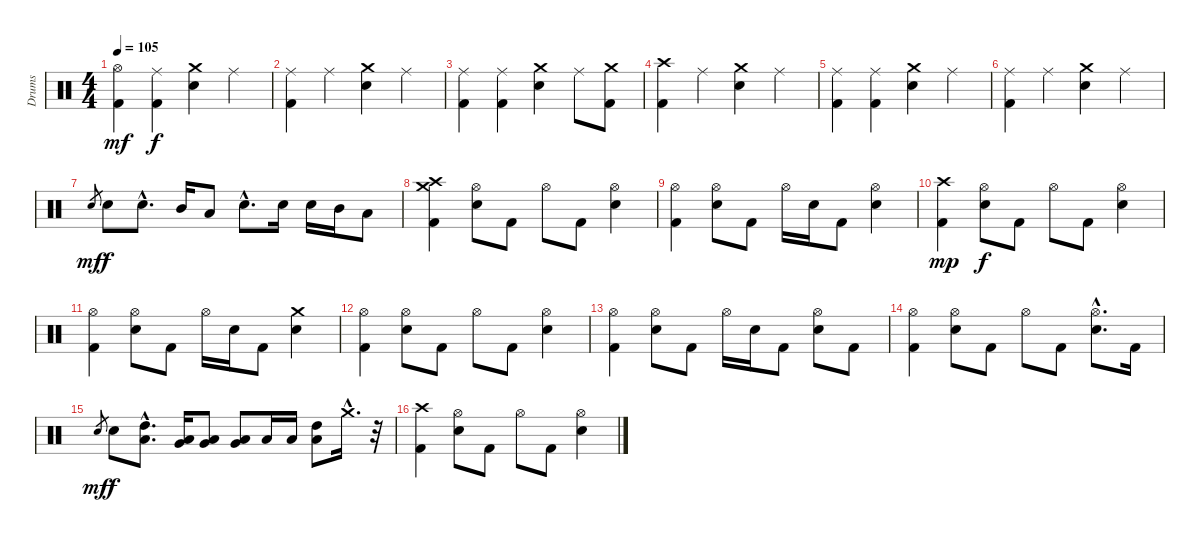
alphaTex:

\track ("Drums" "Drums") {instrument percussion}
\staff {score}
\articulation defaults
\ts (4 4)
\tempo 105
\clef neutral
\ks c
("Hi-Hat (open)" "Kick (hit) 2").4{dy mf} ("Ride (middle)" "Kick (hit) 2").4{dy f} ("Crash medium (hit)" "Snare (hit) 2").4 "Ride (middle)".4 |
("Ride (middle)" "Kick (hit) 2").4 "Ride (middle)".4 ("Crash medium (hit)" "Snare (hit) 2").4 "Ride (middle)".4 |
("Ride (middle)" "Kick (hit) 2").4 ("Ride (middle)" "Kick (hit) 2").4 ("Crash medium (hit)" "Snare (hit) 2").4 "Ride (middle)".8 ("Crash medium (hit)" "Kick (hit) 2").8 |
("Crash high (hit)" "Kick (hit) 2").4 "Ride (middle)".4 ("Crash medium (hit)" "Snare (hit) 2").4 "Ride (middle)".4 |
("Ride (middle)" "Kick (hit) 2").4 ("Ride (middle)" "Kick (hit) 2").4 ("Crash medium (hit)" "Snare (hit) 2").4 "Ride (middle)".4 |
("Ride (middle)" "Kick (hit) 2").4 "Ride (middle)".4 ("Crash medium (hit)" "Snare (hit) 2").4 "Ride (middle)".4 |
"Snare (hit) 2".8{gr dy mf} "Snare (hit) 2".8{dy f} "Snare (hit) 2"{hac}.8{d} "Mid Tom (hit)".16 "Low Tom (hit)".8 "Snare (hit) 2"{hac}.8{d} "Snare (hit) 2".16 "Snare (hit) 2".16 "Mid Tom (hit)".16 "Low Tom (hit)".8 |
("Crash high (hit)" "Crash medium (hit)" "Kick (hit) 2").4 ("Hi-Hat (open)" "Snare (hit) 2").8 "Kick (hit) 2".8 "Hi-Hat (open)".8 "Kick (hit) 2".8 ("Hi-Hat (open)" "Snare (hit) 2").4 |
("Hi-Hat (open)" "Kick (hit) 2").4 ("Hi-Hat (open)" "Snare (hit) 2").8 "Kick (hit) 2".8 "Hi-Hat (open)".16 "Snare (hit) 2".16 "Kick (hit) 2".8 ("Hi-Hat (open)" "Snare (hit) 2").4 |
("Crash high (hit)" "Kick (hit) 2").4{dy mp} ("Hi-Hat (open)" "Snare (hit) 2").8{dy f} "Kick (hit) 2".8 "Hi-Hat (open)".8 "Kick (hit) 2".8 ("Hi-Hat (open)" "Snare (hit) 2").4 |
("Hi-Hat (open)" "Kick (hit) 2").4 ("Hi-Hat (open)" "Snare (hit) 2").8 "Kick (hit) 2".8 "Hi-Hat (open)".16 "Snare (hit) 2".16 "Kick (hit) 2".8 ("Crash medium (hit)" "Snare (hit) 2").4 |
("Hi-Hat (open)" "Kick (hit) 2").4 ("Hi-Hat (open)" "Snare (hit) 2").8 "Kick (hit) 2".8 "Hi-Hat (open)".8 "Kick (hit) 2".8 ("Hi-Hat (open)" "Snare (hit) 2").4 |
("Hi-Hat (open)" "Kick (hit) 2").4 ("Hi-Hat (open)" "Snare (hit) 2").8 "Kick (hit) 2".8 "Hi-Hat (open)".16 "Snare (hit) 2".16 "Kick (hit) 2".8 ("Hi-Hat (open)" "Snare (hit) 2").8 "Kick (hit) 2".8 |
("Hi-Hat (open)" "Kick (hit) 2").4 ("Hi-Hat (open)" "Snare (hit) 2").8 "Kick (hit) 2".8 "Hi-Hat (open)".8 "Kick (hit) 2".8 ("Hi-Hat (open)"{hac} "Snare (hit) 2"{hac}).8{d} "Kick (hit) 2".16 |
"Snare (hit) 2".8{gr dy mf} "Snare (hit) 2".8{dy f} ("High Tom (hit)"{hac} "Low Tom (hit)"{hac}).8{d} ("Very Low Tom (hit)" "Low Floor Tom (hit)").16 ("Very Low Tom (hit)" "Low Floor Tom (hit)").8 ("Very Low Tom (hit)" "Low Floor Tom (hit)").8 "Low Floor Tom (hit)".16 "Low Floor Tom (hit)".16 ("High Tom (hit)" "Low Floor Tom (hit)").8 "Crash medium (hit)"{hac}.16{d} r.32 |
("Crash high (hit)" "Kick (hit) 2").4 ("Hi-Hat (open)" "Snare (hit) 2").8 "Kick (hit) 2".8 "Hi-Hat (open)".8 "Kick (hit) 2".8 ("Hi-Hat (open)" "Snare (hit) 2").4
